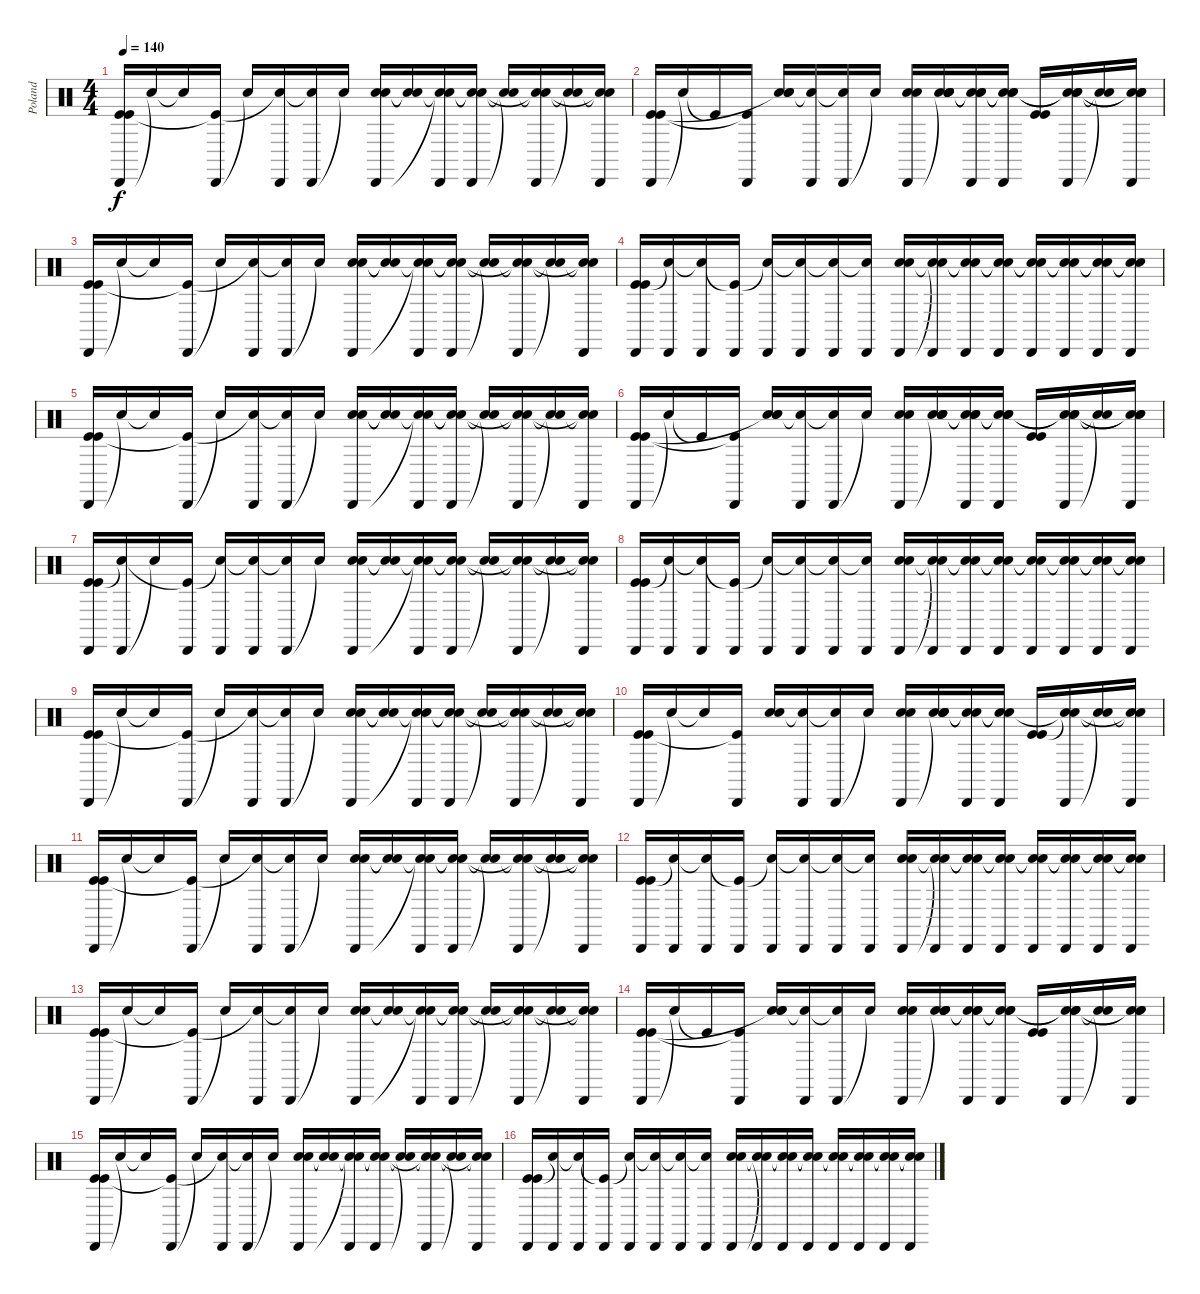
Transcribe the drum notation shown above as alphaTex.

\track ("Poland" "Poland") {instrument percussion}
\staff {score}
\articulation defaults
\ts (4 4)
\tempo 140
\clef neutral
\ks c
("Cabasa (hit)" "Kick (hit)" "Kick (hit)").16{dy f} "Snare (hit)"{t}.16 "Snare (hit)"{t}.16 ("Cabasa (hit)" "Kick (hit)"{t}).16 "Snare (hit)"{t}.16 ("Cabasa (hit)" "Snare (hit)"{t}).16 ("Cabasa (hit)" "Snare (hit)"{t}).16 "Snare (hit)"{t}.16 ("Hand Clap (hit)" "Hand Clap (hit)" "Cabasa (hit)").16 ("Snare (hit)"{t} "Snare (hit)"{t}).16 ("Cabasa (hit)" "Snare (hit)"{t} "Snare (hit)"{t}).16 ("Cabasa (hit)" "Snare (hit)"{t} "Snare (hit)"{t}).16 ("Snare (hit)"{t} "Snare (hit)"{t}).16 ("Cabasa (hit)" "Snare (hit)"{t} "Snare (hit)"{t}).16 ("Snare (hit)"{t} "Snare (hit)"{t}).16 ("Cabasa (hit)" "Snare (hit)"{t} "Snare (hit)"{t}).16 |
("Cabasa (hit)" "Kick (hit)" "Kick (hit)").16 "Snare (hit)"{t}.16 "Kick (hit)"{t}.16 ("Cabasa (hit)" "Kick (hit)"{t}).16 ("Hand Clap (hit)" "Hand Clap (hit)" "Snare (hit)"{t}).16 ("Cabasa (hit)" "Snare (hit)"{t}).16 ("Cabasa (hit)" "Snare (hit)"{t}).16 "Snare (hit)"{t}.16 ("Hand Clap (hit)" "Hand Clap (hit)" "Cabasa (hit)").16 ("Hand Clap (hit)" "Hand Clap (hit)" "Snare (hit)"{t} "Snare (hit)").16 ("Hand Clap (hit)" "Cabasa (hit)" "Snare (hit)"{t} "Snare (hit)"{t}).16 ("Hand Clap (hit)" "Cabasa (hit)" "Snare (hit)"{t} "Snare (hit)"{t}).16 ("Kick (hit)" "Kick (hit)").16 ("Hand Clap (hit)" "Cabasa (hit)" "Snare (hit)"{t} "Snare (hit)"{t}).16 ("Snare (hit)"{t} "Snare (hit)"{t}).16 ("Hand Clap (hit)" "Cabasa (hit)" "Snare (hit)"{t} "Snare (hit)"{t}).16 |
("Cabasa (hit)" "Kick (hit)" "Kick (hit)").16 "Snare (hit)"{t}.16 "Snare (hit)"{t}.16 ("Cabasa (hit)" "Kick (hit)"{t}).16 "Snare (hit)"{t}.16 ("Cabasa (hit)" "Snare (hit)"{t}).16 ("Cabasa (hit)" "Snare (hit)"{t}).16 "Snare (hit)"{t}.16 ("Hand Clap (hit)" "Hand Clap (hit)" "Cabasa (hit)").16 ("Snare (hit)"{t} "Snare (hit)"{t}).16 ("Cabasa (hit)" "Snare (hit)"{t} "Snare (hit)"{t}).16 ("Cabasa (hit)" "Snare (hit)"{t} "Snare (hit)"{t}).16 ("Snare (hit)"{t} "Snare (hit)"{t}).16 ("Cabasa (hit)" "Snare (hit)"{t} "Snare (hit)"{t}).16 ("Snare (hit)"{t} "Snare (hit)"{t}).16 ("Cabasa (hit)" "Snare (hit)"{t} "Snare (hit)"{t}).16 |
("Cabasa (hit)" "Kick (hit)" "Kick (hit)").16 ("Cabasa (hit)" "Snare (hit)"{t}).16 ("Cabasa (hit)" "Snare (hit)"{t}).16 ("Cabasa (hit)" "Kick (hit)"{t}).16 ("Cabasa (hit)" "Snare (hit)"{t}).16 ("Cabasa (hit)" "Snare (hit)"{t}).16 ("Cabasa (hit)" "Snare (hit)"{t}).16 ("Cabasa (hit)" "Snare (hit)"{t}).16 ("Hand Clap (hit)" "Hand Clap (hit)" "Cabasa (hit)").16 ("Cabasa (hit)" "Snare (hit)"{t} "Snare (hit)"{t}).16 ("Cabasa (hit)" "Snare (hit)"{t} "Snare (hit)"{t}).16 ("Cabasa (hit)" "Snare (hit)"{t} "Snare (hit)"{t}).16 ("Cabasa (hit)" "Snare (hit)"{t} "Snare (hit)"{t}).16 ("Cabasa (hit)" "Snare (hit)"{t} "Snare (hit)"{t}).16 ("Cabasa (hit)" "Snare (hit)"{t} "Snare (hit)"{t}).16 ("Cabasa (hit)" "Snare (hit)"{t} "Snare (hit)"{t}).16 |
("Cabasa (hit)" "Kick (hit)" "Kick (hit)").16 "Snare (hit)"{t}.16 "Snare (hit)"{t}.16 ("Cabasa (hit)" "Kick (hit)"{t}).16 "Snare (hit)"{t}.16 ("Cabasa (hit)" "Snare (hit)"{t}).16 ("Cabasa (hit)" "Snare (hit)"{t}).16 "Snare (hit)"{t}.16 ("Hand Clap (hit)" "Hand Clap (hit)" "Cabasa (hit)").16 ("Snare (hit)"{t} "Snare (hit)"{t}).16 ("Cabasa (hit)" "Snare (hit)"{t} "Snare (hit)"{t}).16 ("Cabasa (hit)" "Snare (hit)"{t} "Snare (hit)"{t}).16 ("Snare (hit)"{t} "Snare (hit)"{t}).16 ("Cabasa (hit)" "Snare (hit)"{t} "Snare (hit)"{t}).16 ("Snare (hit)"{t} "Snare (hit)"{t}).16 ("Cabasa (hit)" "Snare (hit)"{t} "Snare (hit)"{t}).16 |
("Cabasa (hit)" "Kick (hit)" "Kick (hit)").16 "Snare (hit)"{t}.16 "Kick (hit)"{t}.16 ("Cabasa (hit)" "Kick (hit)"{t}).16 ("Hand Clap (hit)" "Hand Clap (hit)" "Snare (hit)"{t}).16 ("Cabasa (hit)" "Snare (hit)"{t}).16 ("Cabasa (hit)" "Snare (hit)"{t}).16 "Snare (hit)"{t}.16 ("Hand Clap (hit)" "Hand Clap (hit)" "Cabasa (hit)").16 ("Hand Clap (hit)" "Hand Clap (hit)" "Snare (hit)"{t} "Snare (hit)").16 ("Hand Clap (hit)" "Cabasa (hit)" "Snare (hit)"{t} "Snare (hit)"{t}).16 ("Hand Clap (hit)" "Cabasa (hit)" "Snare (hit)"{t} "Snare (hit)"{t}).16 ("Kick (hit)" "Kick (hit)").16 ("Hand Clap (hit)" "Cabasa (hit)" "Snare (hit)"{t} "Snare (hit)"{t}).16 ("Snare (hit)"{t} "Snare (hit)"{t}).16 ("Hand Clap (hit)" "Cabasa (hit)" "Snare (hit)"{t} "Snare (hit)"{t}).16 |
("Cabasa (hit)" "Kick (hit)" "Kick (hit)").16 ("Cabasa (hit)" "Snare (hit)"{t}).16 "Snare (hit)"{t}.16 ("Cabasa (hit)" "Kick (hit)"{t}).16 ("Cabasa (hit)" "Snare (hit)"{t}).16 ("Cabasa (hit)" "Snare (hit)"{t}).16 ("Cabasa (hit)" "Snare (hit)"{t}).16 "Snare (hit)"{t}.16 ("Hand Clap (hit)" "Hand Clap (hit)" "Cabasa (hit)").16 ("Snare (hit)"{t} "Snare (hit)"{t}).16 ("Cabasa (hit)" "Snare (hit)"{t} "Snare (hit)"{t}).16 ("Cabasa (hit)" "Snare (hit)"{t} "Snare (hit)"{t}).16 ("Snare (hit)"{t} "Snare (hit)"{t}).16 ("Cabasa (hit)" "Snare (hit)"{t} "Snare (hit)"{t}).16 ("Snare (hit)"{t} "Snare (hit)"{t}).16 ("Cabasa (hit)" "Snare (hit)"{t} "Snare (hit)"{t}).16 |
("Cabasa (hit)" "Kick (hit)" "Kick (hit)").16 ("Cabasa (hit)" "Snare (hit)"{t}).16 ("Cabasa (hit)" "Snare (hit)"{t}).16 ("Cabasa (hit)" "Kick (hit)"{t}).16 ("Cabasa (hit)" "Snare (hit)"{t}).16 ("Cabasa (hit)" "Snare (hit)"{t}).16 ("Cabasa (hit)" "Snare (hit)"{t}).16 ("Cabasa (hit)" "Snare (hit)"{t}).16 ("Hand Clap (hit)" "Hand Clap (hit)" "Cabasa (hit)").16 ("Cabasa (hit)" "Snare (hit)"{t} "Snare (hit)"{t}).16 ("Cabasa (hit)" "Snare (hit)"{t} "Snare (hit)"{t}).16 ("Cabasa (hit)" "Snare (hit)"{t} "Snare (hit)"{t}).16 ("Cabasa (hit)" "Snare (hit)"{t} "Snare (hit)"{t}).16 ("Cabasa (hit)" "Snare (hit)"{t} "Snare (hit)"{t}).16 ("Cabasa (hit)" "Snare (hit)"{t} "Snare (hit)"{t}).16 ("Cabasa (hit)" "Snare (hit)"{t} "Snare (hit)"{t}).16 |
("Cabasa (hit)" "Kick (hit)" "Kick (hit)").16 "Snare (hit)"{t}.16 "Snare (hit)"{t}.16 ("Cabasa (hit)" "Kick (hit)"{t}).16 "Snare (hit)"{t}.16 ("Cabasa (hit)" "Snare (hit)"{t}).16 ("Cabasa (hit)" "Snare (hit)"{t}).16 "Snare (hit)"{t}.16 ("Hand Clap (hit)" "Hand Clap (hit)" "Cabasa (hit)").16 ("Snare (hit)"{t} "Snare (hit)"{t}).16 ("Cabasa (hit)" "Snare (hit)"{t} "Snare (hit)"{t}).16 ("Cabasa (hit)" "Snare (hit)"{t} "Snare (hit)"{t}).16 ("Snare (hit)"{t} "Snare (hit)"{t}).16 ("Cabasa (hit)" "Snare (hit)"{t} "Snare (hit)"{t}).16 ("Snare (hit)"{t} "Snare (hit)"{t}).16 ("Cabasa (hit)" "Snare (hit)"{t} "Snare (hit)"{t}).16 |
("Cabasa (hit)" "Kick (hit)" "Kick (hit)").16 "Snare (hit)"{t}.16 "Snare (hit)"{t}.16 ("Cabasa (hit)" "Kick (hit)"{t}).16 ("Hand Clap (hit)" "Hand Clap (hit)").16 ("Cabasa (hit)" "Snare (hit)"{t}).16 ("Cabasa (hit)" "Snare (hit)"{t}).16 "Snare (hit)"{t}.16 ("Hand Clap (hit)" "Hand Clap (hit)" "Cabasa (hit)").16 ("Hand Clap (hit)" "Hand Clap (hit)" "Snare (hit)"{t} "Snare (hit)").16 ("Cabasa (hit)" "Snare (hit)"{t} "Snare (hit)"{t}).16 ("Cabasa (hit)" "Snare (hit)"{t} "Snare (hit)"{t}).16 ("Kick (hit)" "Kick (hit)").16 ("Cabasa (hit)" "Snare (hit)"{t} "Snare (hit)"{t}).16 ("Snare (hit)"{t} "Snare (hit)"{t}).16 ("Cabasa (hit)" "Snare (hit)"{t} "Snare (hit)"{t}).16 |
("Cabasa (hit)" "Kick (hit)" "Kick (hit)").16 "Snare (hit)"{t}.16 "Snare (hit)"{t}.16 ("Cabasa (hit)" "Kick (hit)"{t}).16 "Snare (hit)"{t}.16 ("Cabasa (hit)" "Snare (hit)"{t}).16 ("Cabasa (hit)" "Snare (hit)"{t}).16 "Snare (hit)"{t}.16 ("Hand Clap (hit)" "Hand Clap (hit)" "Cabasa (hit)").16 ("Snare (hit)"{t} "Snare (hit)"{t}).16 ("Cabasa (hit)" "Snare (hit)"{t} "Snare (hit)"{t}).16 ("Cabasa (hit)" "Snare (hit)"{t} "Snare (hit)"{t}).16 ("Snare (hit)"{t} "Snare (hit)"{t}).16 ("Cabasa (hit)" "Snare (hit)"{t} "Snare (hit)"{t}).16 ("Snare (hit)"{t} "Snare (hit)"{t}).16 ("Cabasa (hit)" "Snare (hit)"{t} "Snare (hit)"{t}).16 |
("Cabasa (hit)" "Kick (hit)" "Kick (hit)").16 ("Cabasa (hit)" "Snare (hit)"{t}).16 ("Cabasa (hit)" "Snare (hit)"{t}).16 ("Cabasa (hit)" "Kick (hit)"{t}).16 ("Cabasa (hit)" "Snare (hit)"{t}).16 ("Cabasa (hit)" "Snare (hit)"{t}).16 ("Cabasa (hit)" "Snare (hit)"{t}).16 ("Cabasa (hit)" "Snare (hit)"{t}).16 ("Hand Clap (hit)" "Hand Clap (hit)" "Cabasa (hit)").16 ("Cabasa (hit)" "Snare (hit)"{t} "Snare (hit)"{t}).16 ("Cabasa (hit)" "Snare (hit)"{t} "Snare (hit)"{t}).16 ("Cabasa (hit)" "Snare (hit)"{t} "Snare (hit)"{t}).16 ("Cabasa (hit)" "Snare (hit)"{t} "Snare (hit)"{t}).16 ("Cabasa (hit)" "Snare (hit)"{t} "Snare (hit)"{t}).16 ("Cabasa (hit)" "Snare (hit)"{t} "Snare (hit)"{t}).16 ("Cabasa (hit)" "Snare (hit)"{t} "Snare (hit)"{t}).16 |
("Cabasa (hit)" "Kick (hit)" "Kick (hit)").16 "Snare (hit)"{t}.16 "Snare (hit)"{t}.16 ("Cabasa (hit)" "Kick (hit)"{t}).16 "Snare (hit)"{t}.16 ("Cabasa (hit)" "Snare (hit)"{t}).16 ("Cabasa (hit)" "Snare (hit)"{t}).16 "Snare (hit)"{t}.16 ("Hand Clap (hit)" "Hand Clap (hit)" "Cabasa (hit)").16 ("Snare (hit)"{t} "Snare (hit)"{t}).16 ("Cabasa (hit)" "Snare (hit)"{t} "Snare (hit)"{t}).16 ("Cabasa (hit)" "Snare (hit)"{t} "Snare (hit)"{t}).16 ("Snare (hit)"{t} "Snare (hit)"{t}).16 ("Cabasa (hit)" "Snare (hit)"{t} "Snare (hit)"{t}).16 ("Snare (hit)"{t} "Snare (hit)"{t}).16 ("Cabasa (hit)" "Snare (hit)"{t} "Snare (hit)"{t}).16 |
("Cabasa (hit)" "Kick (hit)" "Kick (hit)").16 "Snare (hit)"{t}.16 "Kick (hit)"{t}.16 ("Cabasa (hit)" "Kick (hit)"{t}).16 ("Hand Clap (hit)" "Hand Clap (hit)" "Snare (hit)"{t}).16 ("Cabasa (hit)" "Snare (hit)"{t}).16 ("Cabasa (hit)" "Snare (hit)"{t}).16 "Snare (hit)"{t}.16 ("Hand Clap (hit)" "Hand Clap (hit)" "Cabasa (hit)").16 ("Hand Clap (hit)" "Hand Clap (hit)" "Snare (hit)"{t} "Snare (hit)").16 ("Hand Clap (hit)" "Cabasa (hit)" "Snare (hit)"{t} "Snare (hit)"{t}).16 ("Hand Clap (hit)" "Cabasa (hit)" "Snare (hit)"{t} "Snare (hit)"{t}).16 ("Kick (hit)" "Kick (hit)").16 ("Hand Clap (hit)" "Cabasa (hit)" "Snare (hit)"{t} "Snare (hit)"{t}).16 ("Snare (hit)"{t} "Snare (hit)"{t}).16 ("Hand Clap (hit)" "Cabasa (hit)" "Snare (hit)"{t} "Snare (hit)"{t}).16 |
("Cabasa (hit)" "Kick (hit)" "Kick (hit)").16 "Snare (hit)"{t}.16 "Snare (hit)"{t}.16 ("Cabasa (hit)" "Kick (hit)"{t}).16 "Snare (hit)"{t}.16 ("Cabasa (hit)" "Snare (hit)"{t}).16 ("Cabasa (hit)" "Snare (hit)"{t}).16 "Snare (hit)"{t}.16 ("Hand Clap (hit)" "Hand Clap (hit)" "Cabasa (hit)").16 ("Snare (hit)"{t} "Snare (hit)"{t}).16 ("Cabasa (hit)" "Snare (hit)"{t} "Snare (hit)"{t}).16 ("Cabasa (hit)" "Snare (hit)"{t} "Snare (hit)"{t}).16 ("Snare (hit)"{t} "Snare (hit)"{t}).16 ("Cabasa (hit)" "Snare (hit)"{t} "Snare (hit)"{t}).16 ("Snare (hit)"{t} "Snare (hit)"{t}).16 ("Cabasa (hit)" "Snare (hit)"{t} "Snare (hit)"{t}).16 |
("Cabasa (hit)" "Kick (hit)" "Kick (hit)").16 ("Cabasa (hit)" "Snare (hit)"{t}).16 ("Cabasa (hit)" "Snare (hit)"{t}).16 ("Cabasa (hit)" "Kick (hit)"{t}).16 ("Cabasa (hit)" "Snare (hit)"{t}).16 ("Cabasa (hit)" "Snare (hit)"{t}).16 ("Cabasa (hit)" "Snare (hit)"{t}).16 ("Cabasa (hit)" "Snare (hit)"{t}).16 ("Hand Clap (hit)" "Hand Clap (hit)" "Cabasa (hit)").16 ("Cabasa (hit)" "Snare (hit)"{t} "Snare (hit)"{t}).16 ("Cabasa (hit)" "Snare (hit)"{t} "Snare (hit)"{t}).16 ("Cabasa (hit)" "Snare (hit)"{t} "Snare (hit)"{t}).16 ("Cabasa (hit)" "Snare (hit)"{t} "Snare (hit)"{t}).16 ("Cabasa (hit)" "Snare (hit)"{t} "Snare (hit)"{t}).16 ("Cabasa (hit)" "Snare (hit)"{t} "Snare (hit)"{t}).16 ("Cabasa (hit)" "Snare (hit)"{t} "Snare (hit)"{t}).16
